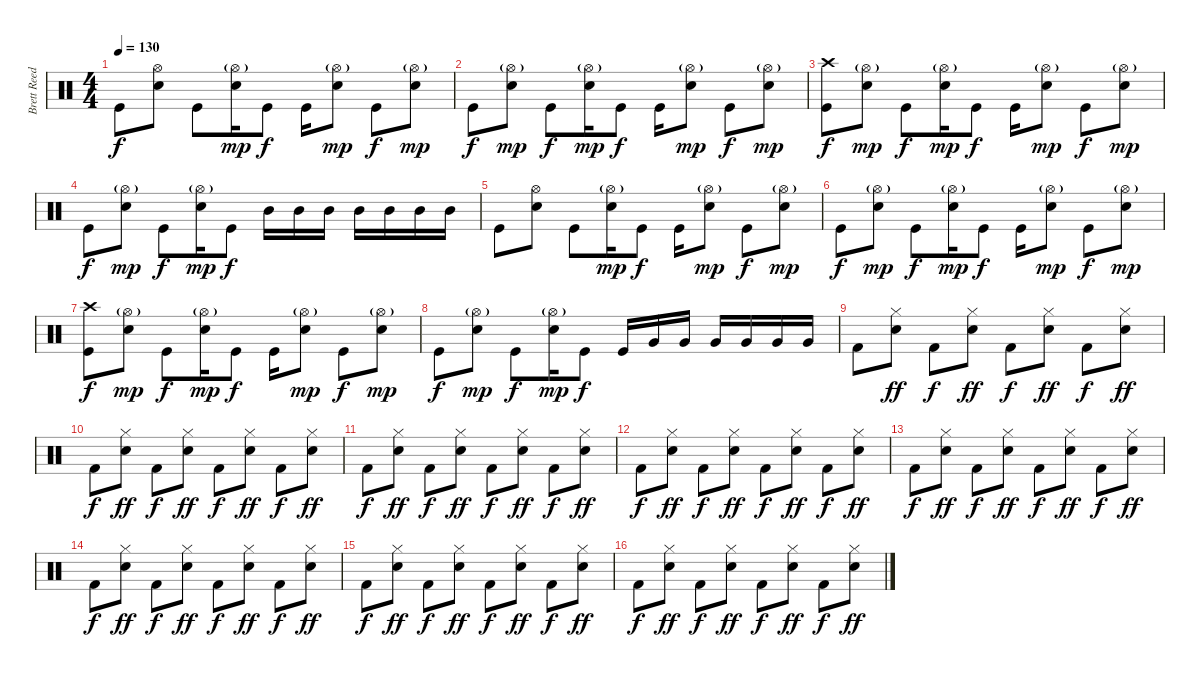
\track ("Brett Reed" "Brett Reed") {instrument percussion}
\staff {score}
\articulation defaults
\ts (4 4)
\tempo 130
\clef neutral
\ks c "Kick (hit)".8{dy f}
("Hi-Hat (open)" "Electric Snare (hit)").8 "Kick (hit)".8 ("Hi-Hat (open)"{g} "Electric Snare (hit)").16{dy mp} "Kick (hit)".8{dy f} "Kick (hit)".16 ("Hi-Hat (open)"{g} "Electric Snare (hit)").8{dy mp} "Kick (hit)".8{dy f} ("Hi-Hat (open)"{g} "Electric Snare (hit)").8{dy mp} |
"Kick (hit)".8{dy f} ("Hi-Hat (open)"{g} "Electric Snare (hit)").8{dy mp} "Kick (hit)".8{dy f} ("Hi-Hat (open)"{g} "Electric Snare (hit)").16{dy mp} "Kick (hit)".8{dy f} "Kick (hit)".16 ("Hi-Hat (open)"{g} "Electric Snare (hit)").8{dy mp} "Kick (hit)".8{dy f} ("Hi-Hat (open)"{g} "Electric Snare (hit)").8{dy mp} |
("Crash high (hit)" "Kick (hit)").8{dy f} ("Hi-Hat (open)"{g} "Electric Snare (hit)").8{dy mp} "Kick (hit)".8{dy f} ("Hi-Hat (open)"{g} "Electric Snare (hit)").16{dy mp} "Kick (hit)".8{dy f} "Kick (hit)".16 ("Hi-Hat (open)"{g} "Electric Snare (hit)").8{dy mp} "Kick (hit)".8{dy f} ("Hi-Hat (open)"{g} "Electric Snare (hit)").8{dy mp} |
"Kick (hit)".8{dy f} ("Hi-Hat (open)"{g} "Electric Snare (hit)").8{dy mp} "Kick (hit)".8{dy f} ("Hi-Hat (open)"{g} "Electric Snare (hit)").16{dy mp} "Kick (hit)".8{dy f} "Mid Tom (hit)".16 "Mid Tom (hit)".16 "Mid Tom (hit)".16 "Mid Tom (hit)".16 "Mid Tom (hit)".16 "Mid Tom (hit)".16 "Mid Tom (hit)".16 |
"Kick (hit)".8 ("Hi-Hat (open)" "Electric Snare (hit)").8 "Kick (hit)".8 ("Hi-Hat (open)"{g} "Electric Snare (hit)").16{dy mp} "Kick (hit)".8{dy f} "Kick (hit)".16 ("Hi-Hat (open)"{g} "Electric Snare (hit)").8{dy mp} "Kick (hit)".8{dy f} ("Hi-Hat (open)"{g} "Electric Snare (hit)").8{dy mp} |
"Kick (hit)".8{dy f} ("Hi-Hat (open)"{g} "Electric Snare (hit)").8{dy mp} "Kick (hit)".8{dy f} ("Hi-Hat (open)"{g} "Electric Snare (hit)").16{dy mp} "Kick (hit)".8{dy f} "Kick (hit)".16 ("Hi-Hat (open)"{g} "Electric Snare (hit)").8{dy mp} "Kick (hit)".8{dy f} ("Hi-Hat (open)"{g} "Electric Snare (hit)").8{dy mp} |
("Crash high (hit)" "Kick (hit)").8{dy f} ("Hi-Hat (open)"{g} "Electric Snare (hit)").8{dy mp} "Kick (hit)".8{dy f} ("Hi-Hat (open)"{g} "Electric Snare (hit)").16{dy mp} "Kick (hit)".8{dy f} "Kick (hit)".16 ("Hi-Hat (open)"{g} "Electric Snare (hit)").8{dy mp} "Kick (hit)".8{dy f} ("Hi-Hat (open)"{g} "Electric Snare (hit)").8{dy mp} |
"Kick (hit)".8{dy f} ("Hi-Hat (open)"{g} "Electric Snare (hit)").8{dy mp} "Kick (hit)".8{dy f} ("Hi-Hat (open)"{g} "Electric Snare (hit)").16{dy mp} "Kick (hit)".8{dy f} "Kick (hit)".16 "Very Low Tom (hit)".16 "Very Low Tom (hit)".16 "Very Low Tom (hit)".16 "Very Low Tom (hit)".16 "Very Low Tom (hit)".16 "Very Low Tom (hit)".16 |
"Kick (hit) 2".8 ("Hi-Hat (closed)" "Electric Snare (hit)").8{dy ff} "Kick (hit) 2".8{dy f} ("Hi-Hat (closed)" "Electric Snare (hit)").8{dy ff} "Kick (hit) 2".8{dy f} ("Hi-Hat (closed)" "Electric Snare (hit)").8{dy ff} "Kick (hit) 2".8{dy f} ("Hi-Hat (closed)" "Electric Snare (hit)").8{dy ff} |
"Kick (hit) 2".8{dy f} ("Hi-Hat (closed)" "Electric Snare (hit)").8{dy ff} "Kick (hit) 2".8{dy f} ("Hi-Hat (closed)" "Electric Snare (hit)").8{dy ff} "Kick (hit) 2".8{dy f} ("Hi-Hat (closed)" "Electric Snare (hit)").8{dy ff} "Kick (hit) 2".8{dy f} ("Hi-Hat (closed)" "Electric Snare (hit)").8{dy ff} |
"Kick (hit) 2".8{dy f} ("Hi-Hat (closed)" "Electric Snare (hit)").8{dy ff} "Kick (hit) 2".8{dy f} ("Hi-Hat (closed)" "Electric Snare (hit)").8{dy ff} "Kick (hit) 2".8{dy f} ("Hi-Hat (closed)" "Electric Snare (hit)").8{dy ff} "Kick (hit) 2".8{dy f} ("Hi-Hat (closed)" "Electric Snare (hit)").8{dy ff} |
"Kick (hit) 2".8{dy f} ("Hi-Hat (closed)" "Electric Snare (hit)").8{dy ff} "Kick (hit) 2".8{dy f} ("Hi-Hat (closed)" "Electric Snare (hit)").8{dy ff} "Kick (hit) 2".8{dy f} ("Hi-Hat (closed)" "Electric Snare (hit)").8{dy ff} "Kick (hit) 2".8{dy f} ("Hi-Hat (closed)" "Electric Snare (hit)").8{dy ff} |
"Kick (hit) 2".8{dy f} ("Hi-Hat (closed)" "Electric Snare (hit)").8{dy ff} "Kick (hit) 2".8{dy f} ("Hi-Hat (closed)" "Electric Snare (hit)").8{dy ff} "Kick (hit) 2".8{dy f} ("Hi-Hat (closed)" "Electric Snare (hit)").8{dy ff} "Kick (hit) 2".8{dy f} ("Hi-Hat (closed)" "Electric Snare (hit)").8{dy ff} |
"Kick (hit) 2".8{dy f} ("Hi-Hat (closed)" "Electric Snare (hit)").8{dy ff} "Kick (hit) 2".8{dy f} ("Hi-Hat (closed)" "Electric Snare (hit)").8{dy ff} "Kick (hit) 2".8{dy f} ("Hi-Hat (closed)" "Electric Snare (hit)").8{dy ff} "Kick (hit) 2".8{dy f} ("Hi-Hat (closed)" "Electric Snare (hit)").8{dy ff} |
"Kick (hit) 2".8{dy f} ("Hi-Hat (closed)" "Electric Snare (hit)").8{dy ff} "Kick (hit) 2".8{dy f} ("Hi-Hat (closed)" "Electric Snare (hit)").8{dy ff} "Kick (hit) 2".8{dy f} ("Hi-Hat (closed)" "Electric Snare (hit)").8{dy ff} "Kick (hit) 2".8{dy f} ("Hi-Hat (closed)" "Electric Snare (hit)").8{dy ff} |
"Kick (hit) 2".8{dy f} ("Hi-Hat (closed)" "Electric Snare (hit)").8{dy ff} "Kick (hit) 2".8{dy f} ("Hi-Hat (closed)" "Electric Snare (hit)").8{dy ff} "Kick (hit) 2".8{dy f} ("Hi-Hat (closed)" "Electric Snare (hit)").8{dy ff} "Kick (hit) 2".8{dy f} ("Hi-Hat (closed)" "Electric Snare (hit)").8{dy ff}
